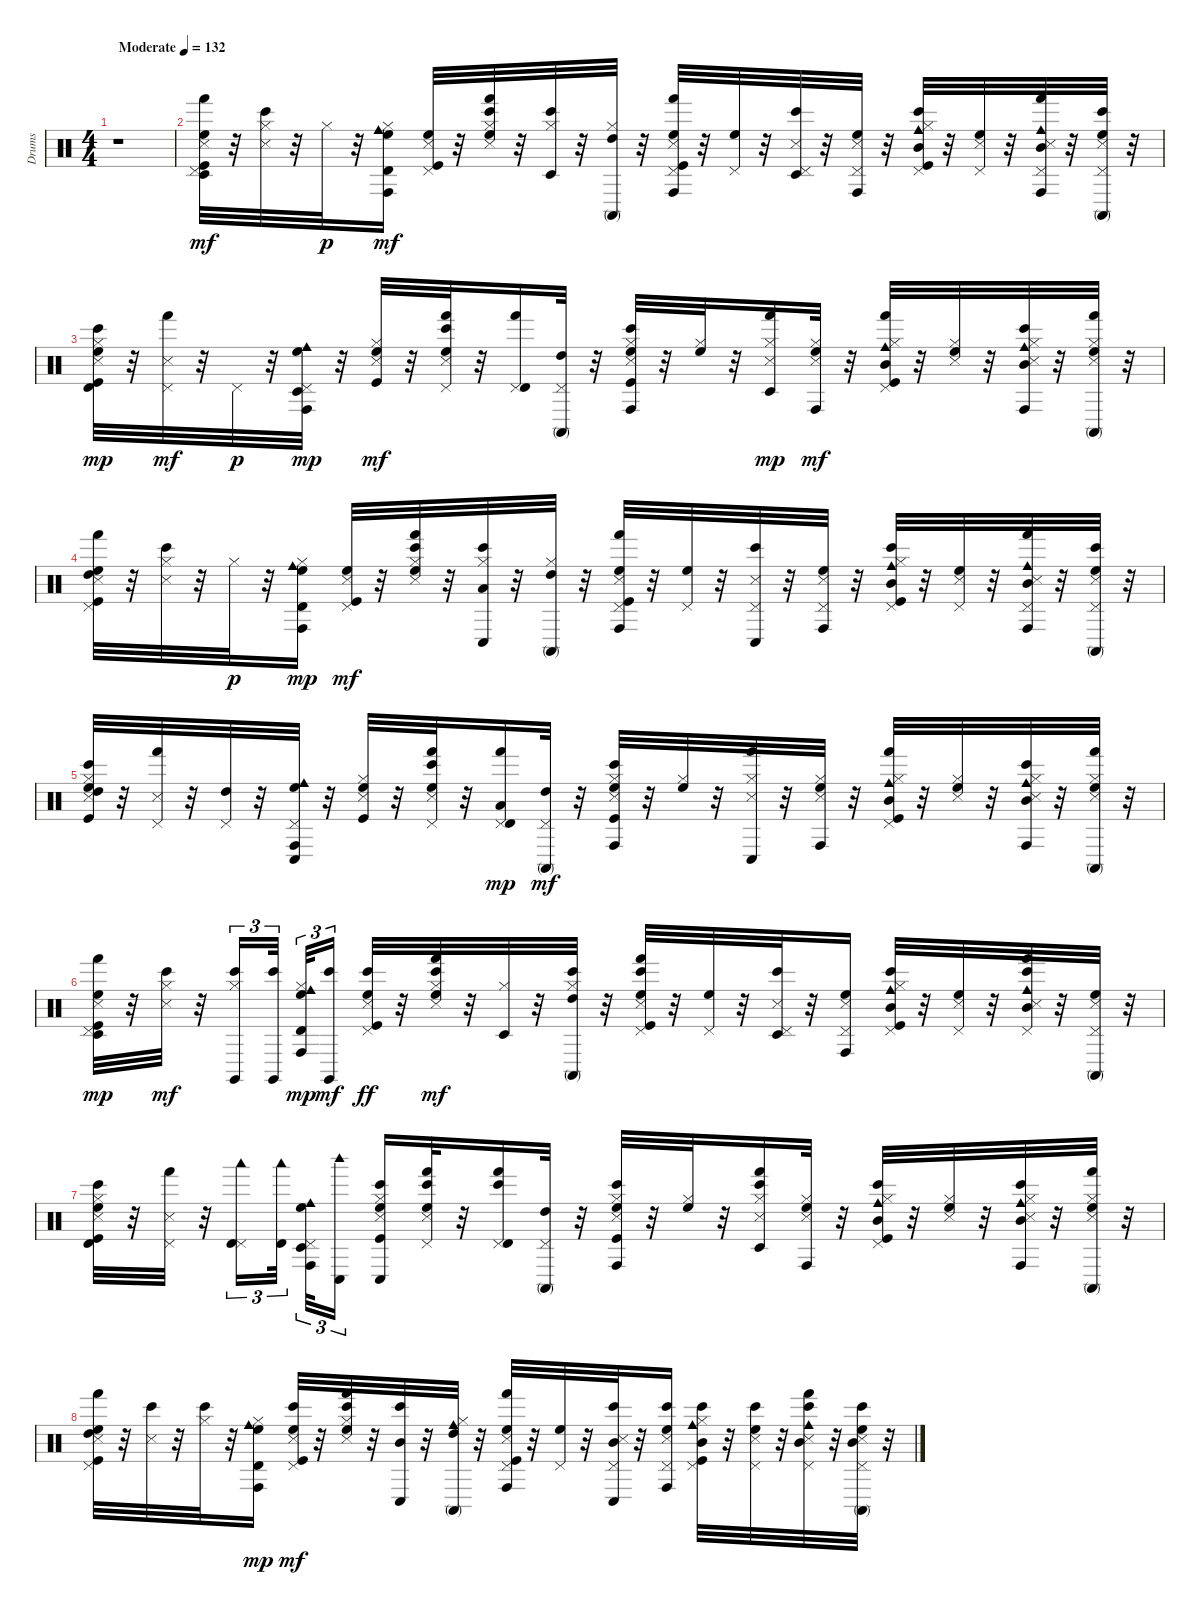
\track ("Drums" "Drums") {instrument percussion}
\staff {score}
\articulation defaults
\ts (4 4)
\tempo (132 "Moderate")
\clef neutral
\ks c
r.1{dy mf} |
("Kick (hit)" "Snare (side stick) 3" "Pedal Hi-Hat (hit)" "High Floor Tom (hit)" "Hand (hit)" "Timbale low (hit)").32 r.32 ("Snare (side stick) 3" "Hi-Hat (closed)" "Bongo High (hit)").32 r.32 "Hi-Hat (closed)".32{dy p} r.32 ("Hi-Hat (closed)" "High Floor Tom (hit)" "Cowbell medium (hit)" "Conga high (hit)" "Timbale high (hit)").16{dy mf} ("Kick (hit)" "Snare (side stick) 3" "Pedal Hi-Hat (hit)" "High Floor Tom (hit)").32 r.32 ("Snare (side stick) 3" "Hi-Hat (closed)" "High Floor Tom (hit)" "Bongo High (hit)" "Hand (hit)").32 r.32 ("Hi-Hat (closed)" "Bongo High (hit)" "Timbale low (hit)").32 r.32 ("Hi-Hat (closed)" "High Tom (hit)" "Conga high (mute)").32 r.32 ("Kick (hit)" "Snare (side stick) 3" "Pedal Hi-Hat (hit)" "High Floor Tom (hit)" "Hand (hit)" "Conga high (hit)").32 r.32 ("Pedal Hi-Hat (hit)" "High Floor Tom (hit)").32 r.32 ("Snare (side stick) 3" "Pedal Hi-Hat (hit)" "Bongo High (hit)" "Timbale low (hit)").32 r.32 ("Snare (side stick) 3" "Pedal Hi-Hat (hit)" "High Floor Tom (hit)" "Conga high (hit)").32 r.32 ("Kick (hit)" "Hi-Hat (closed)" "Pedal Hi-Hat (hit)" "Mid Tom (hit)" "Cowbell medium (hit)" "Bongo High (hit)").32 r.32 ("Snare (side stick) 3" "Pedal Hi-Hat (hit)" "High Floor Tom (hit)").32 r.32 ("Snare (side stick) 3" "Pedal Hi-Hat (hit)" "Mid Tom (hit)" "Cowbell medium (hit)" "Hand (hit)" "Conga high (hit)").32 r.32 ("Snare (side stick) 3" "Pedal Hi-Hat (hit)" "High Floor Tom (hit)" "Bongo High (hit)" "Conga high (mute)").32 r.32 |
("Kick (hit)" "Snare (side stick) 3" "Hi-Hat (closed)" "High Floor Tom (hit)" "Bongo High (hit)" "Timbale high (hit)").32{dy mp} r.32 ("Snare (side stick) 3" "Pedal Hi-Hat (hit)" "Hand (hit)").32{dy mf} r.32 "Pedal Hi-Hat (hit)".32{dy p} r.32 ("Pedal Hi-Hat (hit)" "High Floor Tom (hit)" "Cowbell medium (hit)" "Conga high (hit)" "Timbale low (hit)").32{dy mp} r.32 ("Kick (hit)" "Snare (side stick) 3" "Hi-Hat (closed)" "High Floor Tom (hit)").32{dy mf} r.32 ("Snare (side stick) 3" "Pedal Hi-Hat (hit)" "High Floor Tom (hit)" "Bongo High (hit)" "Hand (hit)").32 r.32 ("Pedal Hi-Hat (hit)" "Hand (hit)" "Timbale high (hit)").16 ("Pedal Hi-Hat (hit)" "High Tom (hit)" "Conga high (mute)").32 r.32 ("Kick (hit)" "Snare (side stick) 3" "Hi-Hat (closed)" "High Floor Tom (hit)" "Bongo High (hit)" "Conga high (hit)").32 r.32 ("Hi-Hat (closed)" "High Floor Tom (hit)").32 r.32 ("Snare (side stick) 3" "Hi-Hat (closed)" "Hand (hit)" "Timbale low (hit)").16{dy mp} ("Snare (side stick) 3" "Hi-Hat (closed)" "High Floor Tom (hit)" "Conga high (hit)").32{dy mf} r.32 ("Kick (hit)" "Hi-Hat (closed)" "Pedal Hi-Hat (hit)" "Mid Tom (hit)" "Cowbell medium (hit)" "Hand (hit)").32 r.32 ("Snare (side stick) 3" "Hi-Hat (closed)" "High Floor Tom (hit)").32 r.32 ("Snare (side stick) 3" "Hi-Hat (closed)" "Mid Tom (hit)" "Cowbell medium (hit)" "Bongo High (hit)" "Conga high (hit)").32 r.32 ("Snare (side stick) 3" "Hi-Hat (closed)" "High Floor Tom (hit)" "Hand (hit)" "Conga high (mute)").32 r.32 |
("Kick (hit)" "Snare (side stick) 3" "Pedal Hi-Hat (hit)" "High Tom (hit)" "High Floor Tom (hit)" "Hand (hit)").32 r.32 ("Snare (side stick) 3" "Hi-Hat (closed)" "Bongo High (hit)").32 r.32 "Hi-Hat (closed)".32{dy p} r.32 ("Hi-Hat (closed)" "High Floor Tom (hit)" "Cowbell medium (hit)" "Conga high (hit)" "Timbale high (hit)").16{dy mp} ("Kick (hit)" "Snare (side stick) 3" "Pedal Hi-Hat (hit)" "High Floor Tom (hit)").32{dy mf} r.32 ("Snare (side stick) 3" "Hi-Hat (closed)" "High Floor Tom (hit)" "Bongo High (hit)" "Hand (hit)").32 r.32 ("Low Floor Tom (hit)" "Hi-Hat (closed)" "Bongo High (hit)" "Conga low (hit)").32 r.32 ("Hi-Hat (closed)" "High Tom (hit)" "Conga high (mute)").32 r.32 ("Kick (hit)" "Snare (side stick) 3" "Pedal Hi-Hat (hit)" "High Floor Tom (hit)" "Hand (hit)" "Conga high (hit)").32 r.32 ("Pedal Hi-Hat (hit)" "High Floor Tom (hit)").32 r.32 ("Snare (side stick) 3" "Pedal Hi-Hat (hit)" "Bongo High (hit)" "Conga low (hit)").32 r.32 ("Snare (side stick) 3" "Pedal Hi-Hat (hit)" "High Floor Tom (hit)" "Conga high (hit)").32 r.32 ("Kick (hit)" "Hi-Hat (closed)" "Pedal Hi-Hat (hit)" "Mid Tom (hit)" "Cowbell medium (hit)" "Bongo High (hit)").32 r.32 ("Snare (side stick) 3" "Pedal Hi-Hat (hit)" "High Floor Tom (hit)").32 r.32 ("Snare (side stick) 3" "Pedal Hi-Hat (hit)" "Mid Tom (hit)" "Cowbell medium (hit)" "Hand (hit)" "Conga high (hit)").32 r.32 ("Snare (side stick) 3" "Pedal Hi-Hat (hit)" "High Floor Tom (hit)" "Bongo High (hit)" "Conga high (mute)").32 r.32 |
("Kick (hit)" "Snare (side stick) 3" "Hi-Hat (closed)" "High Tom (hit)" "High Floor Tom (hit)" "Bongo High (hit)").32 r.32 ("Snare (side stick) 3" "Pedal Hi-Hat (hit)" "Hand (hit)").32 r.32 ("Pedal Hi-Hat (hit)" "High Tom (hit)").32 r.32 ("Pedal Hi-Hat (hit)" "High Floor Tom (hit)" "Cowbell medium (hit)" "Conga high (hit)" "Conga low (hit)").32 r.32 ("Kick (hit)" "Snare (side stick) 3" "Hi-Hat (closed)" "High Floor Tom (hit)").32 r.32 ("Snare (side stick) 3" "Pedal Hi-Hat (hit)" "High Floor Tom (hit)" "Bongo High (hit)" "Hand (hit)").32 r.32 ("Low Floor Tom (hit)" "Pedal Hi-Hat (hit)" "Hand (hit)" "Timbale high (hit)").16{dy mp} ("Pedal Hi-Hat (hit)" "High Tom (hit)" "Conga high (mute)").32{dy mf} r.32 ("Kick (hit)" "Snare (side stick) 3" "Hi-Hat (closed)" "High Floor Tom (hit)" "Bongo High (hit)" "Conga high (hit)").32 r.32 ("Hi-Hat (closed)" "High Floor Tom (hit)").32 r.32 ("Snare (side stick) 3" "Hi-Hat (closed)" "Hand (hit)" "Conga low (hit)").32 r.32 ("Snare (side stick) 3" "Hi-Hat (closed)" "High Floor Tom (hit)" "Conga high (hit)").32 r.32 ("Kick (hit)" "Hi-Hat (closed)" "Pedal Hi-Hat (hit)" "Mid Tom (hit)" "Cowbell medium (hit)" "Hand (hit)").32 r.32 ("Snare (side stick) 3" "Hi-Hat (closed)" "High Floor Tom (hit)").32 r.32 ("Snare (side stick) 3" "Hi-Hat (closed)" "Mid Tom (hit)" "Cowbell medium (hit)" "Bongo High (hit)" "Conga high (hit)").32 r.32 ("Snare (side stick) 3" "Hi-Hat (closed)" "High Floor Tom (hit)" "Hand (hit)" "Conga high (mute)").32 r.32 |
("Kick (hit)" "Snare (side stick) 3" "Pedal Hi-Hat (hit)" "High Floor Tom (hit)" "Hand (hit)" "Timbale low (hit)").32{dy mp} r.32 ("Snare (side stick) 3" "Hi-Hat (closed)" "Bongo High (hit)").32{dy mf} r.32 ("Hi-Hat (closed)" "Bongo High (hit)" "Claves (hit)").16{tu (3 2)} ("Bongo High (hit)" "Claves (hit)").32{tu (3 2) beam splitsecondary} ("Hi-Hat (closed)" "High Floor Tom (hit)" "Cowbell medium (hit)" "Conga high (hit)" "Timbale high (hit)").32{tu (3 2) dy mp} ("Bongo High (hit)" "Claves (hit)").16{tu (3 2) dy mf} ("Kick (hit)" "Snare (side stick) 3" "Pedal Hi-Hat (hit)" "High Floor Tom (hit)" "Bongo High (hit)").32{dy ff} r.32 ("Snare (side stick) 3" "Hi-Hat (closed)" "High Floor Tom (hit)" "Bongo High (hit)" "Hand (hit)").32{dy mf} r.32 ("Hi-Hat (closed)" "Timbale low (hit)").32 r.32 ("Hi-Hat (closed)" "High Tom (hit)" "Bongo High (hit)" "Conga high (mute)").32 r.32 ("Kick (hit)" "Snare (side stick) 3" "Pedal Hi-Hat (hit)" "High Floor Tom (hit)" "Bongo High (hit)" "Hand (hit)").32 r.32 ("Pedal Hi-Hat (hit)" "High Floor Tom (hit)").32 r.32 ("Snare (side stick) 3" "Pedal Hi-Hat (hit)" "Bongo High (hit)" "Timbale low (hit)").32 r.32 ("Snare (side stick) 3" "Pedal Hi-Hat (hit)" "High Floor Tom (hit)" "Conga high (hit)").16 ("Kick (hit)" "Hi-Hat (closed)" "Pedal Hi-Hat (hit)" "Mid Tom (hit)" "Cowbell medium (hit)" "Bongo High (hit)").32 r.32 ("Snare (side stick) 3" "Pedal Hi-Hat (hit)" "High Floor Tom (hit)").32 r.32 ("Snare (side stick) 3" "Pedal Hi-Hat (hit)" "Mid Tom (hit)" "Cowbell medium (hit)" "Bongo High (hit)" "Hand (hit)").32 r.32 ("Snare (side stick) 3" "Pedal Hi-Hat (hit)" "High Floor Tom (hit)" "Conga high (mute)").32 r.32 |
("Kick (hit)" "Snare (side stick) 3" "Hi-Hat (closed)" "High Floor Tom (hit)" "Bongo High (hit)" "Timbale high (hit)").32 r.32 ("Snare (side stick) 3" "Pedal Hi-Hat (hit)" "Hand (hit)").32 r.32 ("Pedal Hi-Hat (hit)" "Timbale high (hit)" "Woodblock low (hit)").16{tu (3 2)} ("Timbale high (hit)" "Woodblock low (hit)").32{tu (3 2) beam splitsecondary} ("Pedal Hi-Hat (hit)" "High Floor Tom (hit)" "Cowbell medium (hit)" "Conga high (hit)" "Timbale low (hit)").32{tu (3 2)} ("Conga low (hit)" "Woodblock high (hit)").16{tu (3 2)} ("Kick (hit)" "Snare (side stick) 3" "Hi-Hat (closed)" "High Floor Tom (hit)" "Bongo High (hit)" "Conga low (hit)").16 ("Snare (side stick) 3" "Pedal Hi-Hat (hit)" "High Floor Tom (hit)" "Bongo High (hit)" "Hand (hit)").32 r.32 ("Pedal Hi-Hat (hit)" "Bongo High (hit)" "Hand (hit)" "Timbale high (hit)").16 ("Pedal Hi-Hat (hit)" "High Tom (hit)" "Conga high (mute)").32 r.32 ("Kick (hit)" "Snare (side stick) 3" "Hi-Hat (closed)" "High Floor Tom (hit)" "Bongo High (hit)" "Conga high (hit)").32 r.32 ("Hi-Hat (closed)" "High Floor Tom (hit)").32 r.32 ("Snare (side stick) 3" "Hi-Hat (closed)" "Bongo High (hit)" "Hand (hit)" "Timbale low (hit)").16 ("Snare (side stick) 3" "Hi-Hat (closed)" "High Floor Tom (hit)" "Conga high (hit)").32 r.32 ("Kick (hit)" "Hi-Hat (closed)" "Pedal Hi-Hat (hit)" "Mid Tom (hit)" "Cowbell medium (hit)" "Bongo High (hit)").32 r.32 ("Snare (side stick) 3" "Hi-Hat (closed)" "High Floor Tom (hit)").32 r.32 ("Snare (side stick) 3" "Hi-Hat (closed)" "Mid Tom (hit)" "Cowbell medium (hit)" "Bongo High (hit)" "Conga high (hit)").32 r.32 ("Snare (side stick) 3" "Hi-Hat (closed)" "High Floor Tom (hit)" "Hand (hit)" "Conga high (mute)").32 r.32 |
("Kick (hit)" "Snare (side stick) 3" "Pedal Hi-Hat (hit)" "High Tom (hit)" "High Floor Tom (hit)" "Hand (hit)").32 r.32 ("Snare (side stick) 3" "Bongo High (hit)").32 r.32 ("Hi-Hat (closed)" "Bongo High (hit)").32 r.32 ("Hi-Hat (closed)" "High Floor Tom (hit)" "Cowbell medium (hit)" "Conga high (hit)" "Timbale high (hit)").16{dy mp} ("Kick (hit)" "Snare (side stick) 3" "Pedal Hi-Hat (hit)" "High Floor Tom (hit)" "Bongo High (hit)").32{dy mf} r.32 ("Snare (side stick) 3" "Hi-Hat (closed)" "High Floor Tom (hit)" "Bongo High (hit)" "Hand (hit)").32 r.32 ("Mid Tom (hit)" "Bongo High (hit)" "Conga low (hit)").32 r.32 ("Hi-Hat (closed)" "High Tom (hit)" "Cowbell medium (hit)" "Conga high (mute)").32 r.32 ("Kick (hit)" "Snare (side stick) 3" "Pedal Hi-Hat (hit)" "High Floor Tom (hit)" "Hand (hit)" "Conga high (hit)").32 r.32 ("Pedal Hi-Hat (hit)" "High Floor Tom (hit)").32 r.32 ("Snare (side stick) 3" "Pedal Hi-Hat (hit)" "Mid Tom (hit)" "Bongo High (hit)" "Conga low (hit)").32 r.32 ("Snare (side stick) 3" "Pedal Hi-Hat (hit)" "High Floor Tom (hit)" "Bongo High (hit)" "Conga high (hit)").16 ("Kick (hit)" "Hi-Hat (closed)" "Pedal Hi-Hat (hit)" "Mid Tom (hit)" "Cowbell medium (hit)" "Bongo High (hit)").32 r.32 ("Snare (side stick) 3" "Pedal Hi-Hat (hit)" "High Floor Tom (hit)" "Bongo High (hit)").32 r.32 ("Snare (side stick) 3" "Pedal Hi-Hat (hit)" "Mid Tom (hit)" "Cowbell medium (hit)" "Bongo High (hit)" "Hand (hit)").32 r.32 ("Snare (side stick) 3" "Pedal Hi-Hat (hit)" "Mid Tom (hit)" "High Floor Tom (hit)" "Bongo High (hit)" "Conga high (mute)").32 r.32
